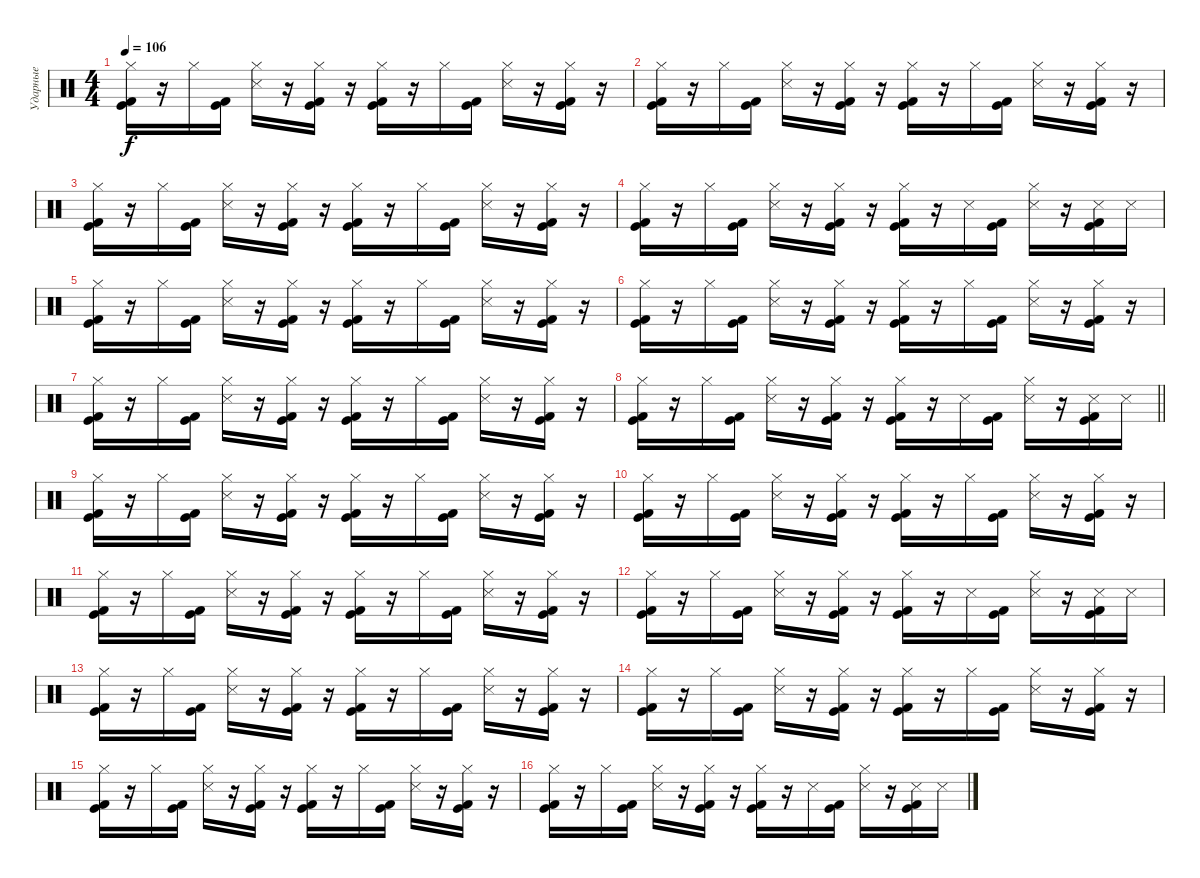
\track ("Ударные" "Ударные") {instrument percussion}
\staff {score}
\articulation defaults
\ts (4 4)
\tempo 106
\clef neutral
\ks c
("Hi-Hat (closed)" "Kick (hit) 2" "Kick (hit)").16{dy f} r.16 "Hi-Hat (closed)".16 ("Kick (hit) 2" "Kick (hit)").16 ("Hi-Hat (closed)" "Snare (side stick) 3").16 r.16 ("Hi-Hat (closed)" "Kick (hit) 2" "Kick (hit)").16 r.16 ("Hi-Hat (closed)" "Kick (hit) 2" "Kick (hit)").16 r.16 "Hi-Hat (closed)".16 ("Kick (hit) 2" "Kick (hit)").16 ("Hi-Hat (closed)" "Snare (side stick) 3").16 r.16 ("Hi-Hat (closed)" "Kick (hit) 2" "Kick (hit)").16 r.16 |
("Hi-Hat (closed)" "Kick (hit) 2" "Kick (hit)").16 r.16 "Hi-Hat (closed)".16 ("Kick (hit) 2" "Kick (hit)").16 ("Hi-Hat (closed)" "Snare (side stick) 3").16 r.16 ("Hi-Hat (closed)" "Kick (hit) 2" "Kick (hit)").16 r.16 ("Hi-Hat (closed)" "Kick (hit) 2" "Kick (hit)").16 r.16 "Hi-Hat (closed)".16 ("Kick (hit) 2" "Kick (hit)").16 ("Hi-Hat (closed)" "Snare (side stick) 3").16 r.16 ("Hi-Hat (closed)" "Kick (hit) 2" "Kick (hit)").16 r.16 |
("Hi-Hat (closed)" "Kick (hit) 2" "Kick (hit)").16 r.16 "Hi-Hat (closed)".16 ("Kick (hit) 2" "Kick (hit)").16 ("Hi-Hat (closed)" "Snare (side stick) 3").16 r.16 ("Hi-Hat (closed)" "Kick (hit) 2" "Kick (hit)").16 r.16 ("Hi-Hat (closed)" "Kick (hit) 2" "Kick (hit)").16 r.16 "Hi-Hat (closed)".16 ("Kick (hit) 2" "Kick (hit)").16 ("Hi-Hat (closed)" "Snare (side stick) 3").16 r.16 ("Hi-Hat (closed)" "Kick (hit) 2" "Kick (hit)").16 r.16 |
("Hi-Hat (closed)" "Kick (hit) 2" "Kick (hit)").16 r.16 "Hi-Hat (closed)".16 ("Kick (hit) 2" "Kick (hit)").16 ("Hi-Hat (closed)" "Snare (side stick) 3").16 r.16 ("Hi-Hat (closed)" "Kick (hit) 2" "Kick (hit)").16 r.16 ("Hi-Hat (closed)" "Kick (hit) 2" "Kick (hit)").16 r.16 "Snare (side stick) 3".16 ("Kick (hit) 2" "Kick (hit)").16 ("Hi-Hat (closed)" "Snare (side stick) 3").16 r.16 ("Snare (side stick) 3" "Kick (hit) 2" "Kick (hit)").16 "Snare (side stick) 3".16 |
("Hi-Hat (closed)" "Kick (hit) 2" "Kick (hit)").16 r.16 "Hi-Hat (closed)".16 ("Kick (hit) 2" "Kick (hit)").16 ("Hi-Hat (closed)" "Snare (side stick) 3").16 r.16 ("Hi-Hat (closed)" "Kick (hit) 2" "Kick (hit)").16 r.16 ("Hi-Hat (closed)" "Kick (hit) 2" "Kick (hit)").16 r.16 "Hi-Hat (closed)".16 ("Kick (hit) 2" "Kick (hit)").16 ("Hi-Hat (closed)" "Snare (side stick) 3").16 r.16 ("Hi-Hat (closed)" "Kick (hit) 2" "Kick (hit)").16 r.16 |
("Hi-Hat (closed)" "Kick (hit) 2" "Kick (hit)").16 r.16 "Hi-Hat (closed)".16 ("Kick (hit) 2" "Kick (hit)").16 ("Hi-Hat (closed)" "Snare (side stick) 3").16 r.16 ("Hi-Hat (closed)" "Kick (hit) 2" "Kick (hit)").16 r.16 ("Hi-Hat (closed)" "Kick (hit) 2" "Kick (hit)").16 r.16 "Hi-Hat (closed)".16 ("Kick (hit) 2" "Kick (hit)").16 ("Hi-Hat (closed)" "Snare (side stick) 3").16 r.16 ("Hi-Hat (closed)" "Kick (hit) 2" "Kick (hit)").16 r.16 |
("Hi-Hat (closed)" "Kick (hit) 2" "Kick (hit)").16 r.16 "Hi-Hat (closed)".16 ("Kick (hit) 2" "Kick (hit)").16 ("Hi-Hat (closed)" "Snare (side stick) 3").16 r.16 ("Hi-Hat (closed)" "Kick (hit) 2" "Kick (hit)").16 r.16 ("Hi-Hat (closed)" "Kick (hit) 2" "Kick (hit)").16 r.16 "Hi-Hat (closed)".16 ("Kick (hit) 2" "Kick (hit)").16 ("Hi-Hat (closed)" "Snare (side stick) 3").16 r.16 ("Hi-Hat (closed)" "Kick (hit) 2" "Kick (hit)").16 r.16 |
\barLineRight lightlight
("Hi-Hat (closed)" "Kick (hit) 2" "Kick (hit)").16 r.16 "Hi-Hat (closed)".16 ("Kick (hit) 2" "Kick (hit)").16 ("Hi-Hat (closed)" "Snare (side stick) 3").16 r.16 ("Hi-Hat (closed)" "Kick (hit) 2" "Kick (hit)").16 r.16 ("Hi-Hat (closed)" "Kick (hit) 2" "Kick (hit)").16 r.16 "Snare (side stick) 3".16 ("Kick (hit) 2" "Kick (hit)").16 ("Hi-Hat (closed)" "Snare (side stick) 3").16 r.16 ("Snare (side stick) 3" "Kick (hit) 2" "Kick (hit)").16 "Snare (side stick) 3".16 |
("Hi-Hat (closed)" "Kick (hit) 2" "Kick (hit)").16 r.16 "Hi-Hat (closed)".16 ("Kick (hit) 2" "Kick (hit)").16 ("Hi-Hat (closed)" "Snare (side stick) 3").16 r.16 ("Hi-Hat (closed)" "Kick (hit) 2" "Kick (hit)").16 r.16 ("Hi-Hat (closed)" "Kick (hit) 2" "Kick (hit)").16 r.16 "Hi-Hat (closed)".16 ("Kick (hit) 2" "Kick (hit)").16 ("Hi-Hat (closed)" "Snare (side stick) 3").16 r.16 ("Hi-Hat (closed)" "Kick (hit) 2" "Kick (hit)").16 r.16 |
("Hi-Hat (closed)" "Kick (hit) 2" "Kick (hit)").16 r.16 "Hi-Hat (closed)".16 ("Kick (hit) 2" "Kick (hit)").16 ("Hi-Hat (closed)" "Snare (side stick) 3").16 r.16 ("Hi-Hat (closed)" "Kick (hit) 2" "Kick (hit)").16 r.16 ("Hi-Hat (closed)" "Kick (hit) 2" "Kick (hit)").16 r.16 "Hi-Hat (closed)".16 ("Kick (hit) 2" "Kick (hit)").16 ("Hi-Hat (closed)" "Snare (side stick) 3").16 r.16 ("Hi-Hat (closed)" "Kick (hit) 2" "Kick (hit)").16 r.16 |
("Hi-Hat (closed)" "Kick (hit) 2" "Kick (hit)").16 r.16 "Hi-Hat (closed)".16 ("Kick (hit) 2" "Kick (hit)").16 ("Hi-Hat (closed)" "Snare (side stick) 3").16 r.16 ("Hi-Hat (closed)" "Kick (hit) 2" "Kick (hit)").16 r.16 ("Hi-Hat (closed)" "Kick (hit) 2" "Kick (hit)").16 r.16 "Hi-Hat (closed)".16 ("Kick (hit) 2" "Kick (hit)").16 ("Hi-Hat (closed)" "Snare (side stick) 3").16 r.16 ("Hi-Hat (closed)" "Kick (hit) 2" "Kick (hit)").16 r.16 |
("Hi-Hat (closed)" "Kick (hit) 2" "Kick (hit)").16 r.16 "Hi-Hat (closed)".16 ("Kick (hit) 2" "Kick (hit)").16 ("Hi-Hat (closed)" "Snare (side stick) 3").16 r.16 ("Hi-Hat (closed)" "Kick (hit) 2" "Kick (hit)").16 r.16 ("Hi-Hat (closed)" "Kick (hit) 2" "Kick (hit)").16 r.16 "Snare (side stick) 3".16 ("Kick (hit) 2" "Kick (hit)").16 ("Hi-Hat (closed)" "Snare (side stick) 3").16 r.16 ("Snare (side stick) 3" "Kick (hit) 2" "Kick (hit)").16 "Snare (side stick) 3".16 |
("Hi-Hat (closed)" "Kick (hit) 2" "Kick (hit)").16 r.16 "Hi-Hat (closed)".16 ("Kick (hit) 2" "Kick (hit)").16 ("Hi-Hat (closed)" "Snare (side stick) 3").16 r.16 ("Hi-Hat (closed)" "Kick (hit) 2" "Kick (hit)").16 r.16 ("Hi-Hat (closed)" "Kick (hit) 2" "Kick (hit)").16 r.16 "Hi-Hat (closed)".16 ("Kick (hit) 2" "Kick (hit)").16 ("Hi-Hat (closed)" "Snare (side stick) 3").16 r.16 ("Hi-Hat (closed)" "Kick (hit) 2" "Kick (hit)").16 r.16 |
("Hi-Hat (closed)" "Kick (hit) 2" "Kick (hit)").16 r.16 "Hi-Hat (closed)".16 ("Kick (hit) 2" "Kick (hit)").16 ("Hi-Hat (closed)" "Snare (side stick) 3").16 r.16 ("Hi-Hat (closed)" "Kick (hit) 2" "Kick (hit)").16 r.16 ("Hi-Hat (closed)" "Kick (hit) 2" "Kick (hit)").16 r.16 "Hi-Hat (closed)".16 ("Kick (hit) 2" "Kick (hit)").16 ("Hi-Hat (closed)" "Snare (side stick) 3").16 r.16 ("Hi-Hat (closed)" "Kick (hit) 2" "Kick (hit)").16 r.16 |
("Hi-Hat (closed)" "Kick (hit) 2" "Kick (hit)").16 r.16 "Hi-Hat (closed)".16 ("Kick (hit) 2" "Kick (hit)").16 ("Hi-Hat (closed)" "Snare (side stick) 3").16 r.16 ("Hi-Hat (closed)" "Kick (hit) 2" "Kick (hit)").16 r.16 ("Hi-Hat (closed)" "Kick (hit) 2" "Kick (hit)").16 r.16 "Hi-Hat (closed)".16 ("Kick (hit) 2" "Kick (hit)").16 ("Hi-Hat (closed)" "Snare (side stick) 3").16 r.16 ("Hi-Hat (closed)" "Kick (hit) 2" "Kick (hit)").16 r.16 |
("Hi-Hat (closed)" "Kick (hit) 2" "Kick (hit)").16 r.16 "Hi-Hat (closed)".16 ("Kick (hit) 2" "Kick (hit)").16 ("Hi-Hat (closed)" "Snare (side stick) 3").16 r.16 ("Hi-Hat (closed)" "Kick (hit) 2" "Kick (hit)").16 r.16 ("Hi-Hat (closed)" "Kick (hit) 2" "Kick (hit)").16 r.16 "Snare (side stick) 3".16 ("Kick (hit) 2" "Kick (hit)").16 ("Hi-Hat (closed)" "Snare (side stick) 3").16 r.16 ("Snare (side stick) 3" "Kick (hit) 2" "Kick (hit)").16 "Snare (side stick) 3".16
